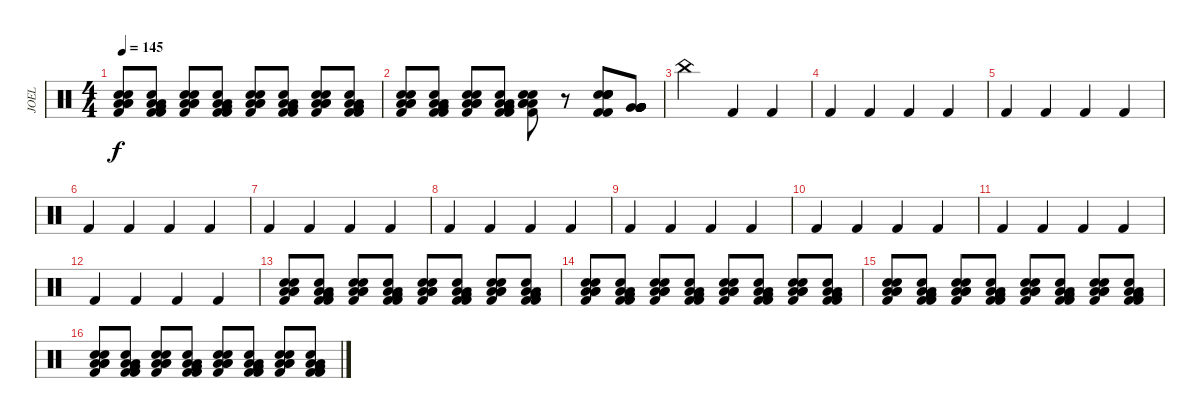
\track ("JOEL" "JOEL") {instrument percussion}
\staff {score}
\articulation defaults
\ts (4 4)
\tempo 145
\clef neutral
\ks c
("Low Floor Tom (hit)" "Kick (hit) 2" "Low Floor Tom (hit)" "Electric Snare (hit)" "Low Floor Tom (hit)" "Snare (hit) 2").8{dy f} ("Low Floor Tom (hit)" "Kick (hit) 2" "Low Floor Tom (hit)" "Electric Snare (hit)" "Very Low Tom (hit)" "Kick (hit) 2").8 ("Low Floor Tom (hit)" "Kick (hit) 2" "Low Floor Tom (hit)" "Electric Snare (hit)" "Low Floor Tom (hit)" "Snare (hit) 2").8 ("Low Floor Tom (hit)" "Kick (hit) 2" "Low Floor Tom (hit)" "Electric Snare (hit)" "Very Low Tom (hit)" "Kick (hit) 2").8 ("Low Floor Tom (hit)" "Kick (hit) 2" "Low Floor Tom (hit)" "Electric Snare (hit)" "Low Floor Tom (hit)" "Snare (hit) 2").8 ("Low Floor Tom (hit)" "Kick (hit) 2" "Low Floor Tom (hit)" "Electric Snare (hit)" "Very Low Tom (hit)" "Kick (hit) 2").8 ("Low Floor Tom (hit)" "Kick (hit) 2" "Low Floor Tom (hit)" "Electric Snare (hit)" "Low Floor Tom (hit)" "Snare (hit) 2").8 ("Low Floor Tom (hit)" "Kick (hit) 2" "Low Floor Tom (hit)" "Electric Snare (hit)" "Very Low Tom (hit)" "Kick (hit) 2").8 |
("Low Floor Tom (hit)" "Kick (hit) 2" "Low Floor Tom (hit)" "Electric Snare (hit)" "Low Floor Tom (hit)" "Snare (hit) 2").8 ("Low Floor Tom (hit)" "Kick (hit) 2" "Low Floor Tom (hit)" "Electric Snare (hit)" "Very Low Tom (hit)" "Kick (hit) 2").8 ("Low Floor Tom (hit)" "Kick (hit) 2" "Low Floor Tom (hit)" "Electric Snare (hit)" "Low Floor Tom (hit)" "Snare (hit) 2").8 ("Low Floor Tom (hit)" "Kick (hit) 2" "Low Floor Tom (hit)" "Electric Snare (hit)" "Very Low Tom (hit)" "Kick (hit) 2").8 ("Low Floor Tom (hit)" "Kick (hit) 2" "Low Floor Tom (hit)" "Electric Snare (hit)" "Low Floor Tom (hit)" "Snare (hit) 2").8 r.8 ("Kick (hit) 2" "Kick (hit) 2" "Electric Snare (hit)" "Electric Snare (hit)" "Electric Snare (hit)" "Electric Snare (hit)").8 ("Very Low Tom (hit)" "Very Low Tom (hit)" "Very Low Tom (hit)" "Very Low Tom (hit)" "Very Low Tom (hit)" "Very Low Tom (hit)").8 |
"China (hit)".2 "Kick (hit) 2".4 "Kick (hit) 2".4 |
"Kick (hit) 2".4 "Kick (hit) 2".4 "Kick (hit) 2".4 "Kick (hit) 2".4 |
"Kick (hit) 2".4 "Kick (hit) 2".4 "Kick (hit) 2".4 "Kick (hit) 2".4 |
"Kick (hit) 2".4 "Kick (hit) 2".4 "Kick (hit) 2".4 "Kick (hit) 2".4 |
"Kick (hit) 2".4 "Kick (hit) 2".4 "Kick (hit) 2".4 "Kick (hit) 2".4 |
"Kick (hit) 2".4 "Kick (hit) 2".4 "Kick (hit) 2".4 "Kick (hit) 2".4 |
"Kick (hit) 2".4 "Kick (hit) 2".4 "Kick (hit) 2".4 "Kick (hit) 2".4 |
"Kick (hit) 2".4 "Kick (hit) 2".4 "Kick (hit) 2".4 "Kick (hit) 2".4 |
"Kick (hit) 2".4 "Kick (hit) 2".4 "Kick (hit) 2".4 "Kick (hit) 2".4 |
"Kick (hit) 2".4 "Kick (hit) 2".4 "Kick (hit) 2".4 "Kick (hit) 2".4 |
("Low Floor Tom (hit)" "Kick (hit) 2" "Low Floor Tom (hit)" "Electric Snare (hit)" "Low Floor Tom (hit)" "Snare (hit) 2").8 ("Low Floor Tom (hit)" "Kick (hit) 2" "Low Floor Tom (hit)" "Electric Snare (hit)" "Very Low Tom (hit)" "Kick (hit) 2").8 ("Low Floor Tom (hit)" "Kick (hit) 2" "Low Floor Tom (hit)" "Electric Snare (hit)" "Low Floor Tom (hit)" "Snare (hit) 2").8 ("Low Floor Tom (hit)" "Kick (hit) 2" "Low Floor Tom (hit)" "Electric Snare (hit)" "Very Low Tom (hit)" "Kick (hit) 2").8 ("Low Floor Tom (hit)" "Kick (hit) 2" "Low Floor Tom (hit)" "Electric Snare (hit)" "Low Floor Tom (hit)" "Snare (hit) 2").8 ("Low Floor Tom (hit)" "Kick (hit) 2" "Low Floor Tom (hit)" "Electric Snare (hit)" "Very Low Tom (hit)" "Kick (hit) 2").8 ("Low Floor Tom (hit)" "Kick (hit) 2" "Low Floor Tom (hit)" "Electric Snare (hit)" "Low Floor Tom (hit)" "Snare (hit) 2").8 ("Low Floor Tom (hit)" "Kick (hit) 2" "Low Floor Tom (hit)" "Electric Snare (hit)" "Very Low Tom (hit)" "Kick (hit) 2").8 |
("Low Floor Tom (hit)" "Kick (hit) 2" "Low Floor Tom (hit)" "Electric Snare (hit)" "Low Floor Tom (hit)" "Snare (hit) 2").8 ("Low Floor Tom (hit)" "Kick (hit) 2" "Low Floor Tom (hit)" "Electric Snare (hit)" "Very Low Tom (hit)" "Kick (hit) 2").8 ("Low Floor Tom (hit)" "Kick (hit) 2" "Low Floor Tom (hit)" "Electric Snare (hit)" "Low Floor Tom (hit)" "Snare (hit) 2").8 ("Low Floor Tom (hit)" "Kick (hit) 2" "Low Floor Tom (hit)" "Electric Snare (hit)" "Very Low Tom (hit)" "Kick (hit) 2").8 ("Low Floor Tom (hit)" "Kick (hit) 2" "Low Floor Tom (hit)" "Electric Snare (hit)" "Low Floor Tom (hit)" "Snare (hit) 2").8 ("Low Floor Tom (hit)" "Kick (hit) 2" "Low Floor Tom (hit)" "Electric Snare (hit)" "Very Low Tom (hit)" "Kick (hit) 2").8 ("Low Floor Tom (hit)" "Kick (hit) 2" "Low Floor Tom (hit)" "Electric Snare (hit)" "Low Floor Tom (hit)" "Snare (hit) 2").8 ("Low Floor Tom (hit)" "Kick (hit) 2" "Low Floor Tom (hit)" "Electric Snare (hit)" "Very Low Tom (hit)" "Kick (hit) 2").8 |
("Low Floor Tom (hit)" "Kick (hit) 2" "Low Floor Tom (hit)" "Electric Snare (hit)" "Low Floor Tom (hit)" "Snare (hit) 2").8 ("Low Floor Tom (hit)" "Kick (hit) 2" "Low Floor Tom (hit)" "Electric Snare (hit)" "Very Low Tom (hit)" "Kick (hit) 2").8 ("Low Floor Tom (hit)" "Kick (hit) 2" "Low Floor Tom (hit)" "Electric Snare (hit)" "Low Floor Tom (hit)" "Snare (hit) 2").8 ("Low Floor Tom (hit)" "Kick (hit) 2" "Low Floor Tom (hit)" "Electric Snare (hit)" "Very Low Tom (hit)" "Kick (hit) 2").8 ("Low Floor Tom (hit)" "Kick (hit) 2" "Low Floor Tom (hit)" "Electric Snare (hit)" "Low Floor Tom (hit)" "Snare (hit) 2").8 ("Low Floor Tom (hit)" "Kick (hit) 2" "Low Floor Tom (hit)" "Electric Snare (hit)" "Very Low Tom (hit)" "Kick (hit) 2").8 ("Low Floor Tom (hit)" "Kick (hit) 2" "Low Floor Tom (hit)" "Electric Snare (hit)" "Low Floor Tom (hit)" "Snare (hit) 2").8 ("Low Floor Tom (hit)" "Kick (hit) 2" "Low Floor Tom (hit)" "Electric Snare (hit)" "Very Low Tom (hit)" "Kick (hit) 2").8 |
("Low Floor Tom (hit)" "Kick (hit) 2" "Low Floor Tom (hit)" "Electric Snare (hit)" "Low Floor Tom (hit)" "Snare (hit) 2").8 ("Low Floor Tom (hit)" "Kick (hit) 2" "Low Floor Tom (hit)" "Electric Snare (hit)" "Very Low Tom (hit)" "Kick (hit) 2").8 ("Low Floor Tom (hit)" "Kick (hit) 2" "Low Floor Tom (hit)" "Electric Snare (hit)" "Low Floor Tom (hit)" "Snare (hit) 2").8 ("Low Floor Tom (hit)" "Kick (hit) 2" "Low Floor Tom (hit)" "Electric Snare (hit)" "Very Low Tom (hit)" "Kick (hit) 2").8 ("Low Floor Tom (hit)" "Kick (hit) 2" "Low Floor Tom (hit)" "Electric Snare (hit)" "Low Floor Tom (hit)" "Snare (hit) 2").8 ("Low Floor Tom (hit)" "Kick (hit) 2" "Low Floor Tom (hit)" "Electric Snare (hit)" "Very Low Tom (hit)" "Kick (hit) 2").8 ("Low Floor Tom (hit)" "Kick (hit) 2" "Low Floor Tom (hit)" "Electric Snare (hit)" "Low Floor Tom (hit)" "Snare (hit) 2").8 ("Low Floor Tom (hit)" "Kick (hit) 2" "Low Floor Tom (hit)" "Electric Snare (hit)" "Very Low Tom (hit)" "Kick (hit) 2").8
